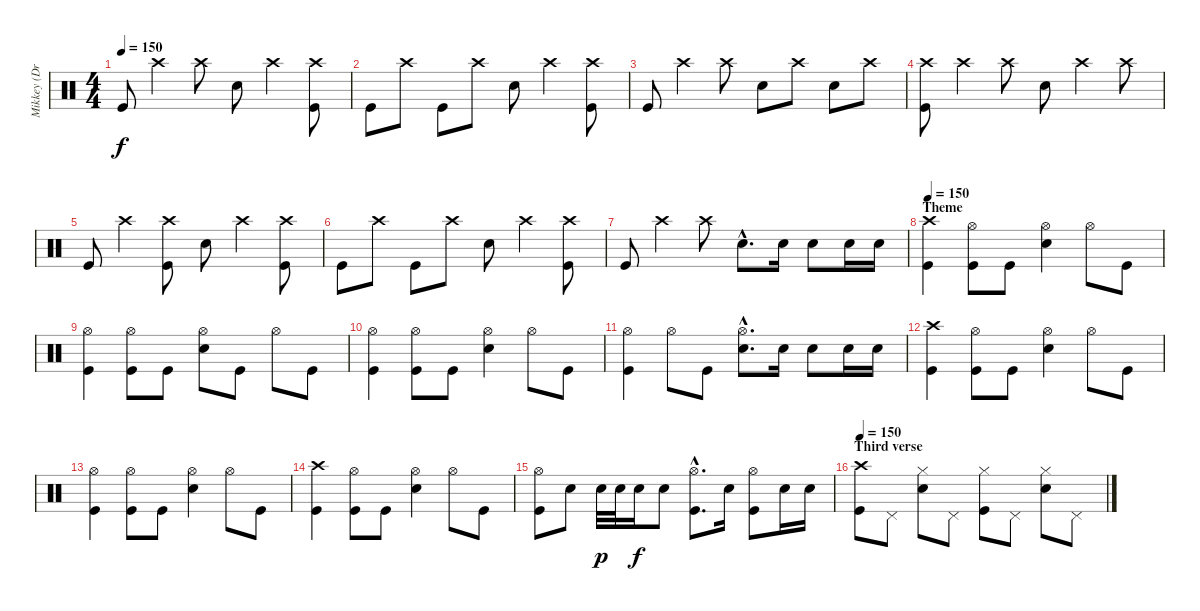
\track ("Mikkey (Drums)" "Mikkey (Dr") {instrument percussion}
\staff {score}
\articulation defaults
\ts (4 4)
\tempo 150
\clef neutral
\ks c "Kick (hit)".8{dy f} "Crash high (hit)".4 "Crash high (hit)".8 "Electric Snare (hit)".8 "Crash high (hit)".4
("Crash high (hit)" "Kick (hit)").8 |
"Kick (hit)".8 "Crash high (hit)".8 "Kick (hit)".8 "Crash high (hit)".8 "Electric Snare (hit)".8 "Crash high (hit)".4 ("Crash high (hit)" "Kick (hit)").8 |
"Kick (hit)".8 "Crash high (hit)".4 "Crash high (hit)".8 "Electric Snare (hit)".8 "Crash high (hit)".8 "Electric Snare (hit)".8 "Crash high (hit)".8 |
("Crash high (hit)" "Kick (hit)").8 "Crash high (hit)".4 "Crash high (hit)".8 "Electric Snare (hit)".8 "Crash high (hit)".4 "Crash high (hit)".8 |
"Kick (hit)".8 "Crash high (hit)".4 ("Crash high (hit)" "Kick (hit)").8 "Electric Snare (hit)".8 "Crash high (hit)".4 ("Crash high (hit)" "Kick (hit)").8 |
"Kick (hit)".8 "Crash high (hit)".8 "Kick (hit)".8 "Crash high (hit)".8 "Electric Snare (hit)".8 "Crash high (hit)".4 ("Crash high (hit)" "Kick (hit)").8 |
"Kick (hit)".8 "Crash high (hit)".4 "Crash high (hit)".8 "Electric Snare (hit)"{hac}.8{d} "Electric Snare (hit)".16 "Electric Snare (hit)".8 "Electric Snare (hit)".16 "Electric Snare (hit)".16 |
\section ("" "Theme")
\tempo 150
("Crash high (hit)" "Kick (hit)").4 ("Hi-Hat (open)" "Kick (hit)").8 "Kick (hit)".8 ("Hi-Hat (open)" "Electric Snare (hit)").4 "Hi-Hat (open)".8 "Kick (hit)".8 |
("Hi-Hat (open)" "Kick (hit)").4 ("Hi-Hat (open)" "Kick (hit)").8 "Kick (hit)".8 ("Hi-Hat (open)" "Electric Snare (hit)").8 "Kick (hit)".8 "Hi-Hat (open)".8 "Kick (hit)".8 |
("Hi-Hat (open)" "Kick (hit)").4 ("Hi-Hat (open)" "Kick (hit)").8 "Kick (hit)".8 ("Hi-Hat (open)" "Electric Snare (hit)").4 "Hi-Hat (open)".8 "Kick (hit)".8 |
("Hi-Hat (open)" "Kick (hit)").4 "Hi-Hat (open)".8 "Kick (hit)".8 ("Hi-Hat (open)"{hac} "Electric Snare (hit)"{hac}).8{d} "Electric Snare (hit)".16 "Electric Snare (hit)".8 "Electric Snare (hit)".16 "Electric Snare (hit)".16 |
("Crash high (hit)" "Kick (hit)").4 ("Hi-Hat (open)" "Kick (hit)").8 "Kick (hit)".8 ("Hi-Hat (open)" "Electric Snare (hit)").4 "Hi-Hat (open)".8 "Kick (hit)".8 |
("Hi-Hat (open)" "Kick (hit)").4 ("Hi-Hat (open)" "Kick (hit)").8 "Kick (hit)".8 ("Hi-Hat (open)" "Electric Snare (hit)").4 "Hi-Hat (open)".8 "Kick (hit)".8 |
("Crash high (hit)" "Kick (hit)").4 ("Hi-Hat (open)" "Kick (hit)").8 "Kick (hit)".8 ("Hi-Hat (open)" "Electric Snare (hit)").4 "Hi-Hat (open)".8 "Kick (hit)".8 |
("Hi-Hat (open)" "Kick (hit)").8 "Electric Snare (hit)".8 "Electric Snare (hit)".32{dy p} "Electric Snare (hit)".32 "Electric Snare (hit)".16{dy f} "Electric Snare (hit)".8 ("Hi-Hat (open)"{hac} "Kick (hit)"{hac}).8{d} "Electric Snare (hit)".16 ("Hi-Hat (open)" "Kick (hit)").8 "Electric Snare (hit)".16 "Electric Snare (hit)".16 |
\section ("" "Third verse")
\tempo 150
("Crash high (hit)" "Kick (hit)").8 "Pedal Hi-Hat (hit)".8 ("Hi-Hat (closed)" "Electric Snare (hit)").8 "Pedal Hi-Hat (hit)".8 ("Hi-Hat (closed)" "Kick (hit)").8 "Pedal Hi-Hat (hit)".8 ("Hi-Hat (closed)" "Electric Snare (hit)").8 "Pedal Hi-Hat (hit)".8
